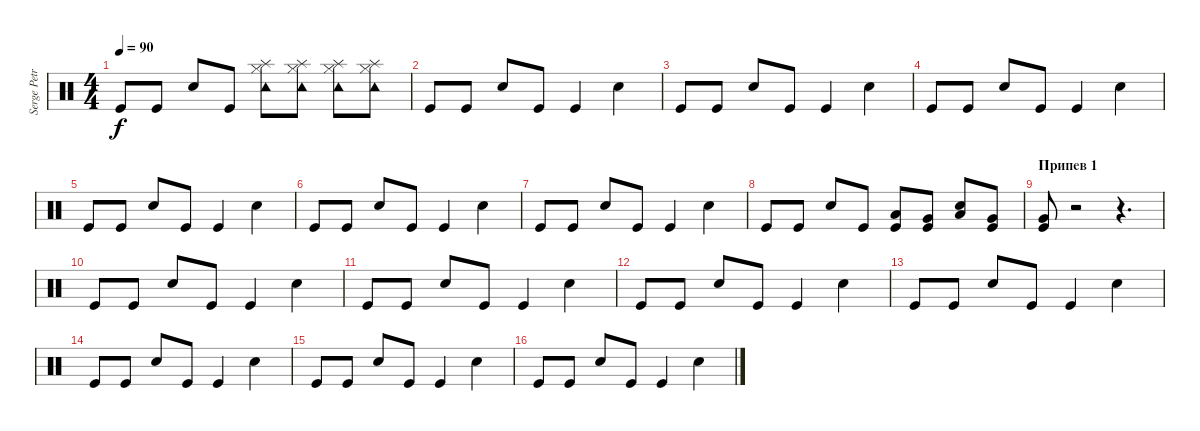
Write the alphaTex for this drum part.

\track ("Serge Petrone" "Serge Petr") {instrument percussion}
\staff {score}
\articulation defaults
\ts (4 4)
\tempo 90
\clef neutral
\ks c "Kick (hit)".8{dy f} "Kick (hit)".8 "Snare (hit) 2".8 "Kick (hit)".8
("Splash (hit)" "Tambourine (hit)" "Hi-Hat (closed)").8 ("Splash (hit)" "Hi-Hat (closed)" "Tambourine (hit)").8 ("Splash (hit)" "Hi-Hat (closed)" "Tambourine (hit)").8 ("Splash (hit)" "Hi-Hat (closed)" "Tambourine (hit)").8 |
"Kick (hit)".8 "Kick (hit)".8 "Snare (hit) 2".8 "Kick (hit)".8 "Kick (hit)".4 "Snare (hit) 2".4 |
"Kick (hit)".8 "Kick (hit)".8 "Snare (hit) 2".8 "Kick (hit)".8 "Kick (hit)".4 "Snare (hit) 2".4 |
"Kick (hit)".8 "Kick (hit)".8 "Snare (hit) 2".8 "Kick (hit)".8 "Kick (hit)".4 "Snare (hit) 2".4 |
"Kick (hit)".8 "Kick (hit)".8 "Snare (hit) 2".8 "Kick (hit)".8 "Kick (hit)".4 "Snare (hit) 2".4 |
"Kick (hit)".8 "Kick (hit)".8 "Snare (hit) 2".8 "Kick (hit)".8 "Kick (hit)".4 "Snare (hit) 2".4 |
"Kick (hit)".8 "Kick (hit)".8 "Snare (hit) 2".8 "Kick (hit)".8 "Kick (hit)".4 "Snare (hit) 2".4 |
"Kick (hit)".8 "Kick (hit)".8 "Snare (hit) 2".8 "Kick (hit)".8 ("Kick (hit)" "Low Floor Tom (hit)").8 ("Kick (hit)" "Very Low Tom (hit)").8 ("Snare (hit) 2" "Low Tom (hit)").8 ("Kick (hit)" "Very Low Tom (hit)").8 |
\section ("" "Припев 1")
("Kick (hit)" "Very Low Tom (hit)").8 r.2 r.4{d} |
"Kick (hit)".8 "Kick (hit)".8 "Snare (hit) 2".8 "Kick (hit)".8 "Kick (hit)".4 "Snare (hit) 2".4 |
"Kick (hit)".8 "Kick (hit)".8 "Snare (hit) 2".8 "Kick (hit)".8 "Kick (hit)".4 "Snare (hit) 2".4 |
"Kick (hit)".8 "Kick (hit)".8 "Snare (hit) 2".8 "Kick (hit)".8 "Kick (hit)".4 "Snare (hit) 2".4 |
"Kick (hit)".8 "Kick (hit)".8 "Snare (hit) 2".8 "Kick (hit)".8 "Kick (hit)".4 "Snare (hit) 2".4 |
"Kick (hit)".8 "Kick (hit)".8 "Snare (hit) 2".8 "Kick (hit)".8 "Kick (hit)".4 "Snare (hit) 2".4 |
"Kick (hit)".8 "Kick (hit)".8 "Snare (hit) 2".8 "Kick (hit)".8 "Kick (hit)".4 "Snare (hit) 2".4 |
"Kick (hit)".8 "Kick (hit)".8 "Snare (hit) 2".8 "Kick (hit)".8 "Kick (hit)".4 "Snare (hit) 2".4
